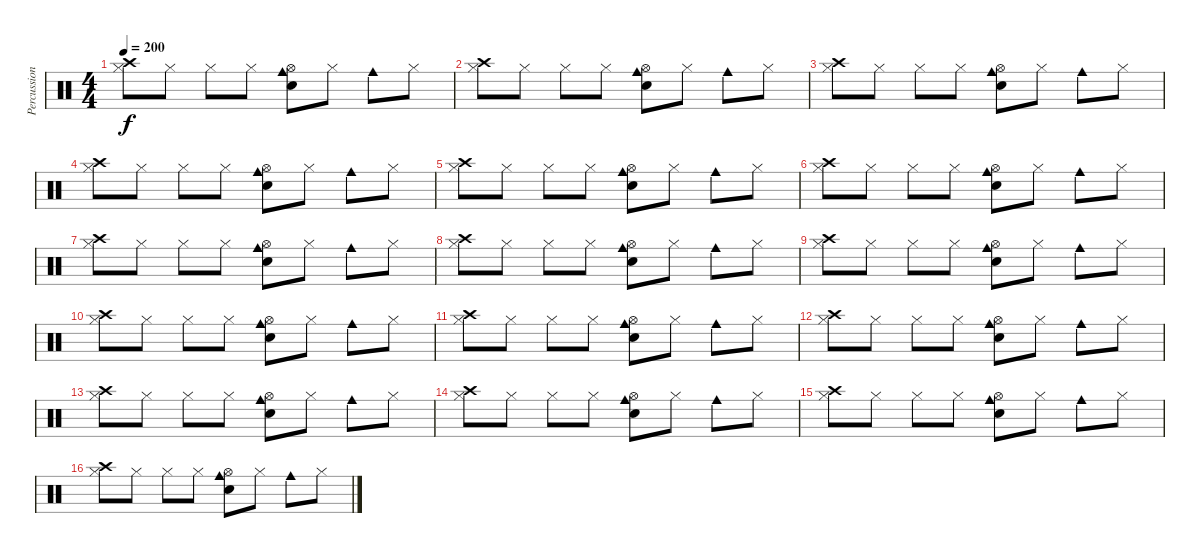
\track ("Percussion" "Percussion") {instrument percussion}
\staff {score}
\articulation defaults
\ts (4 4)
\tempo 200
\clef neutral
\ks c
("Hi-Hat (closed)" "Crash high (hit)").8{dy f} "Hi-Hat (closed)".8 "Hi-Hat (closed)".8 "Hi-Hat (closed)".8 ("Cowbell medium (hit)" "Snare (hit) 2" "Hi-Hat (open)").8 "Hi-Hat (closed)".8 "Cowbell medium (hit)".8 "Hi-Hat (closed)".8 |
("Hi-Hat (closed)" "Crash high (hit)").8 "Hi-Hat (closed)".8 "Hi-Hat (closed)".8 "Hi-Hat (closed)".8 ("Cowbell medium (hit)" "Snare (hit) 2" "Hi-Hat (open)").8 "Hi-Hat (closed)".8 "Cowbell medium (hit)".8 "Hi-Hat (closed)".8 |
("Hi-Hat (closed)" "Crash high (hit)").8 "Hi-Hat (closed)".8 "Hi-Hat (closed)".8 "Hi-Hat (closed)".8 ("Cowbell medium (hit)" "Snare (hit) 2" "Hi-Hat (open)").8 "Hi-Hat (closed)".8 "Cowbell medium (hit)".8 "Hi-Hat (closed)".8 |
("Hi-Hat (closed)" "Crash high (hit)").8 "Hi-Hat (closed)".8 "Hi-Hat (closed)".8 "Hi-Hat (closed)".8 ("Cowbell medium (hit)" "Snare (hit) 2" "Hi-Hat (open)").8 "Hi-Hat (closed)".8 "Cowbell medium (hit)".8 "Hi-Hat (closed)".8 |
("Hi-Hat (closed)" "Crash high (hit)").8 "Hi-Hat (closed)".8 "Hi-Hat (closed)".8 "Hi-Hat (closed)".8 ("Cowbell medium (hit)" "Snare (hit) 2" "Hi-Hat (open)").8 "Hi-Hat (closed)".8 "Cowbell medium (hit)".8 "Hi-Hat (closed)".8 |
("Hi-Hat (closed)" "Crash high (hit)").8 "Hi-Hat (closed)".8 "Hi-Hat (closed)".8 "Hi-Hat (closed)".8 ("Cowbell medium (hit)" "Snare (hit) 2" "Hi-Hat (open)").8 "Hi-Hat (closed)".8 "Cowbell medium (hit)".8 "Hi-Hat (closed)".8 |
("Hi-Hat (closed)" "Crash high (hit)").8 "Hi-Hat (closed)".8 "Hi-Hat (closed)".8 "Hi-Hat (closed)".8 ("Cowbell medium (hit)" "Snare (hit) 2" "Hi-Hat (open)").8 "Hi-Hat (closed)".8 "Cowbell medium (hit)".8 "Hi-Hat (closed)".8 |
("Hi-Hat (closed)" "Crash high (hit)").8 "Hi-Hat (closed)".8 "Hi-Hat (closed)".8 "Hi-Hat (closed)".8 ("Cowbell medium (hit)" "Snare (hit) 2" "Hi-Hat (open)").8 "Hi-Hat (closed)".8 "Cowbell medium (hit)".8 "Hi-Hat (closed)".8 |
("Hi-Hat (closed)" "Crash high (hit)").8 "Hi-Hat (closed)".8 "Hi-Hat (closed)".8 "Hi-Hat (closed)".8 ("Cowbell medium (hit)" "Snare (hit) 2" "Hi-Hat (open)").8 "Hi-Hat (closed)".8 "Cowbell medium (hit)".8 "Hi-Hat (closed)".8 |
("Hi-Hat (closed)" "Crash high (hit)").8 "Hi-Hat (closed)".8 "Hi-Hat (closed)".8 "Hi-Hat (closed)".8 ("Cowbell medium (hit)" "Snare (hit) 2" "Hi-Hat (open)").8 "Hi-Hat (closed)".8 "Cowbell medium (hit)".8 "Hi-Hat (closed)".8 |
("Hi-Hat (closed)" "Crash high (hit)").8 "Hi-Hat (closed)".8 "Hi-Hat (closed)".8 "Hi-Hat (closed)".8 ("Cowbell medium (hit)" "Snare (hit) 2" "Hi-Hat (open)").8 "Hi-Hat (closed)".8 "Cowbell medium (hit)".8 "Hi-Hat (closed)".8 |
("Hi-Hat (closed)" "Crash high (hit)").8 "Hi-Hat (closed)".8 "Hi-Hat (closed)".8 "Hi-Hat (closed)".8 ("Cowbell medium (hit)" "Snare (hit) 2" "Hi-Hat (open)").8 "Hi-Hat (closed)".8 "Cowbell medium (hit)".8 "Hi-Hat (closed)".8 |
("Hi-Hat (closed)" "Crash high (hit)").8 "Hi-Hat (closed)".8 "Hi-Hat (closed)".8 "Hi-Hat (closed)".8 ("Cowbell medium (hit)" "Snare (hit) 2" "Hi-Hat (open)").8 "Hi-Hat (closed)".8 "Cowbell medium (hit)".8 "Hi-Hat (closed)".8 |
("Hi-Hat (closed)" "Crash high (hit)").8 "Hi-Hat (closed)".8 "Hi-Hat (closed)".8 "Hi-Hat (closed)".8 ("Cowbell medium (hit)" "Snare (hit) 2" "Hi-Hat (open)").8 "Hi-Hat (closed)".8 "Cowbell medium (hit)".8 "Hi-Hat (closed)".8 |
("Hi-Hat (closed)" "Crash high (hit)").8 "Hi-Hat (closed)".8 "Hi-Hat (closed)".8 "Hi-Hat (closed)".8 ("Cowbell medium (hit)" "Snare (hit) 2" "Hi-Hat (open)").8 "Hi-Hat (closed)".8 "Cowbell medium (hit)".8 "Hi-Hat (closed)".8 |
("Hi-Hat (closed)" "Crash high (hit)").8 "Hi-Hat (closed)".8 "Hi-Hat (closed)".8 "Hi-Hat (closed)".8 ("Cowbell medium (hit)" "Snare (hit) 2" "Hi-Hat (open)").8 "Hi-Hat (closed)".8 "Cowbell medium (hit)".8 "Hi-Hat (closed)".8
